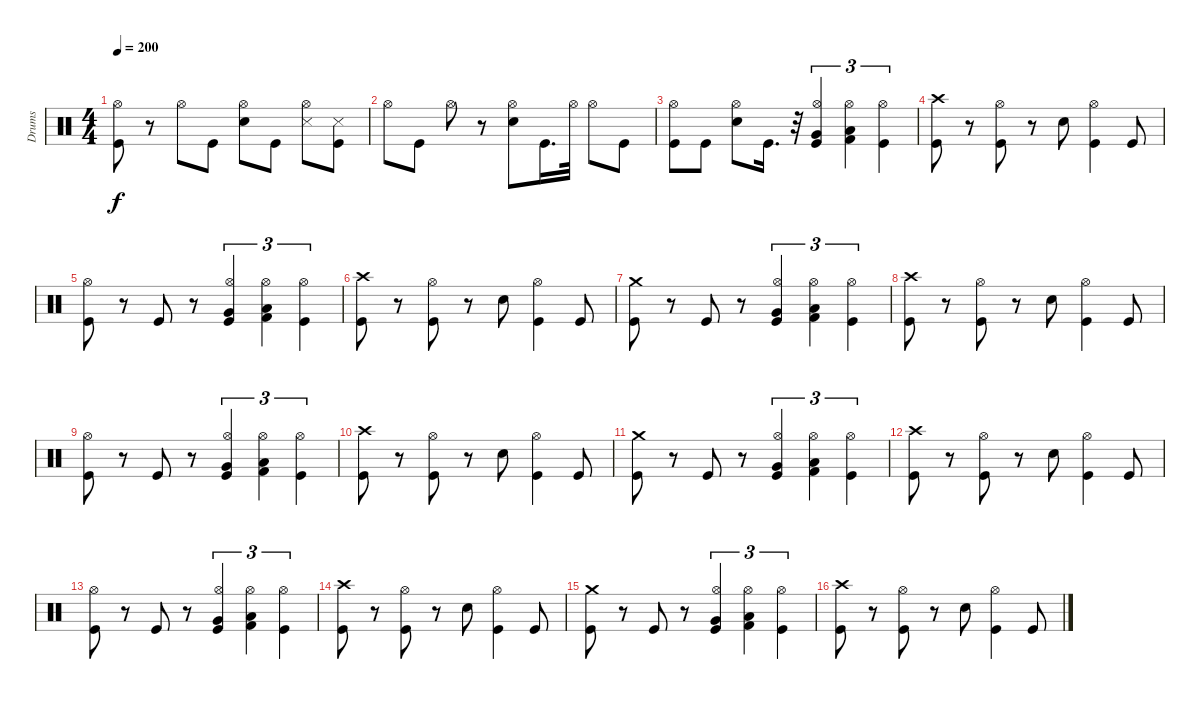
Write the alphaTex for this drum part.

\track ("Drums" "Drums") {instrument percussion}
\staff {score}
\articulation defaults
\ts (4 4)
\tempo 200
\clef neutral
\ks c
("Kick (hit)" "Hi-Hat (open)").8{dy f} r.8 "Hi-Hat (open)".8 "Kick (hit)".8 ("Electric Snare (hit)" "Hi-Hat (open)").8 "Kick (hit)".8 ("Snare (side stick) 3" "Hi-Hat (open)").8 ("Kick (hit)" "Snare (side stick) 3").8 |
"Hi-Hat (open)".8 "Kick (hit)".8 "Hi-Hat (open)".8 r.8 ("Electric Snare (hit)" "Hi-Hat (open)").8 "Kick (hit)".16{d} "Hi-Hat (open)".32 "Hi-Hat (open)".8 "Kick (hit)".8 |
("Kick (hit)" "Hi-Hat (open)").8 "Kick (hit)".8 ("Electric Snare (hit)" "Hi-Hat (open)").8 "Kick (hit)".16{d} r.32 ("Kick (hit)" "Hi-Hat (open)" "Very Low Tom (hit)").4{tu (3 2)} ("Kick (hit) 2" "Hi-Hat (open)" "Low Floor Tom (hit)").4{tu (3 2)} ("Kick (hit)" "Hi-Hat (open)").4{tu (3 2)} |
("Kick (hit)" "Crash high (hit)").8 r.8 ("Kick (hit)" "Hi-Hat (open)").8 r.8 "Electric Snare (hit)".8 ("Kick (hit)" "Hi-Hat (open)").4 "Kick (hit)".8 |
("Kick (hit)" "Hi-Hat (open)").8 r.8 "Kick (hit)".8 r.8 ("Kick (hit)" "Hi-Hat (open)" "Very Low Tom (hit)").4{tu (3 2)} ("Kick (hit) 2" "Hi-Hat (open)" "Low Floor Tom (hit)").4{tu (3 2)} ("Kick (hit)" "Hi-Hat (open)").4{tu (3 2)} |
("Kick (hit)" "Crash high (hit)").8 r.8 ("Kick (hit)" "Hi-Hat (open)").8 r.8 "Electric Snare (hit)".8 ("Kick (hit)" "Hi-Hat (open)").4 "Kick (hit)".8 |
("Kick (hit)" "Crash medium (hit)").8 r.8 "Kick (hit)".8 r.8 ("Kick (hit)" "Hi-Hat (open)" "Very Low Tom (hit)").4{tu (3 2)} ("Kick (hit) 2" "Hi-Hat (open)" "Low Floor Tom (hit)").4{tu (3 2)} ("Kick (hit)" "Hi-Hat (open)").4{tu (3 2)} |
("Kick (hit)" "Crash high (hit)").8 r.8 ("Kick (hit)" "Hi-Hat (open)").8 r.8 "Electric Snare (hit)".8 ("Kick (hit)" "Hi-Hat (open)").4 "Kick (hit)".8 |
("Kick (hit)" "Hi-Hat (open)").8 r.8 "Kick (hit)".8 r.8 ("Kick (hit)" "Hi-Hat (open)" "Very Low Tom (hit)").4{tu (3 2)} ("Kick (hit) 2" "Hi-Hat (open)" "Low Floor Tom (hit)").4{tu (3 2)} ("Kick (hit)" "Hi-Hat (open)").4{tu (3 2)} |
("Kick (hit)" "Crash high (hit)").8 r.8 ("Kick (hit)" "Hi-Hat (open)").8 r.8 "Electric Snare (hit)".8 ("Kick (hit)" "Hi-Hat (open)").4 "Kick (hit)".8 |
("Kick (hit)" "Crash medium (hit)").8 r.8 "Kick (hit)".8 r.8 ("Kick (hit)" "Hi-Hat (open)" "Very Low Tom (hit)").4{tu (3 2)} ("Kick (hit) 2" "Hi-Hat (open)" "Low Floor Tom (hit)").4{tu (3 2)} ("Kick (hit)" "Hi-Hat (open)").4{tu (3 2)} |
("Kick (hit)" "Crash high (hit)").8 r.8 ("Kick (hit)" "Hi-Hat (open)").8 r.8 "Electric Snare (hit)".8 ("Kick (hit)" "Hi-Hat (open)").4 "Kick (hit)".8 |
("Kick (hit)" "Hi-Hat (open)").8 r.8 "Kick (hit)".8 r.8 ("Kick (hit)" "Hi-Hat (open)" "Very Low Tom (hit)").4{tu (3 2)} ("Kick (hit) 2" "Hi-Hat (open)" "Low Floor Tom (hit)").4{tu (3 2)} ("Kick (hit)" "Hi-Hat (open)").4{tu (3 2)} |
("Kick (hit)" "Crash high (hit)").8 r.8 ("Kick (hit)" "Hi-Hat (open)").8 r.8 "Electric Snare (hit)".8 ("Kick (hit)" "Hi-Hat (open)").4 "Kick (hit)".8 |
("Kick (hit)" "Crash medium (hit)").8 r.8 "Kick (hit)".8 r.8 ("Kick (hit)" "Hi-Hat (open)" "Very Low Tom (hit)").4{tu (3 2)} ("Kick (hit) 2" "Hi-Hat (open)" "Low Floor Tom (hit)").4{tu (3 2)} ("Kick (hit)" "Hi-Hat (open)").4{tu (3 2)} |
("Kick (hit)" "Crash high (hit)").8 r.8 ("Kick (hit)" "Hi-Hat (open)").8 r.8 "Electric Snare (hit)".8 ("Kick (hit)" "Hi-Hat (open)").4 "Kick (hit)".8
